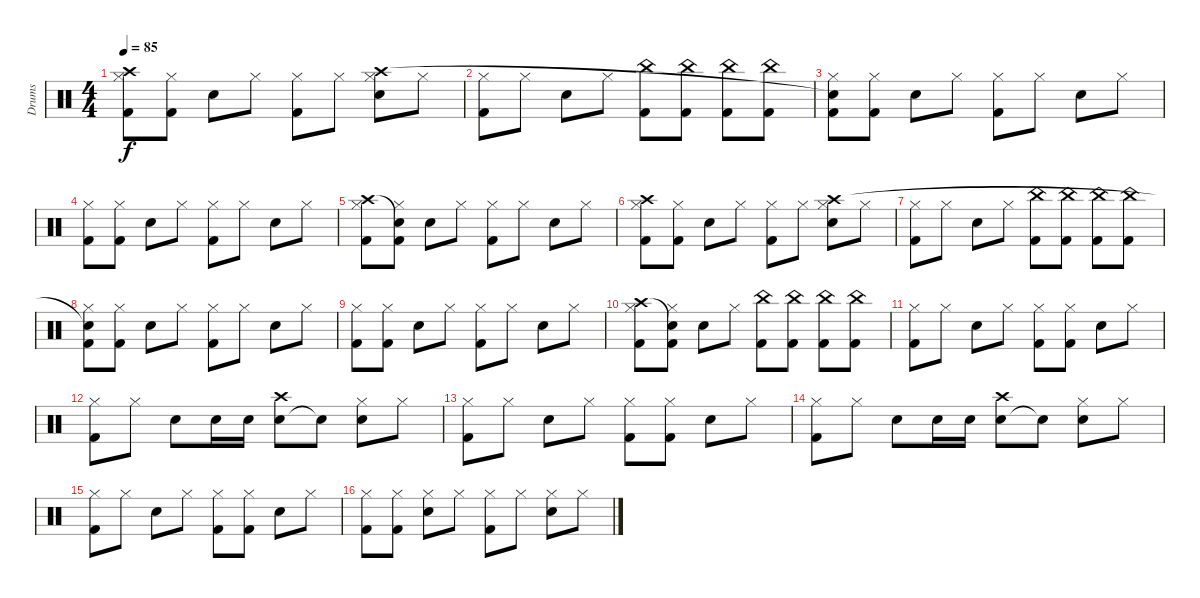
\track ("Drums" "Drums") {instrument percussion}
\staff {score}
\articulation defaults
\ts (4 4)
\tempo 85
\clef neutral
\ks c
("Kick (hit) 2" "Hi-Hat (closed)" "Crash high (hit)").8{dy f} ("Kick (hit) 2" "Hi-Hat (closed)").8 "Snare (hit) 2".8 "Hi-Hat (closed)".8 ("Kick (hit) 2" "Hi-Hat (closed)").8 "Hi-Hat (closed)".8 ("Snare (hit) 2" "Hi-Hat (closed)" "Crash high (hit)").8 "Hi-Hat (closed)".8 |
("Kick (hit) 2" "Hi-Hat (closed)").8 "Hi-Hat (closed)".8 "Snare (hit) 2".8 "Hi-Hat (closed)".8 ("Kick (hit) 2" "China (hit)").8 ("Kick (hit) 2" "China (hit)").8 ("Kick (hit) 2" "China (hit)").8 ("Kick (hit) 2" "China (hit)").8 |
("Kick (hit) 2" "Hi-Hat (closed)" "Snare (hit)"{t}).8 ("Kick (hit) 2" "Hi-Hat (closed)").8 "Snare (hit) 2".8 "Hi-Hat (closed)".8 ("Kick (hit) 2" "Hi-Hat (closed)").8 "Hi-Hat (closed)".8 "Snare (hit) 2".8 "Hi-Hat (closed)".8 |
("Kick (hit) 2" "Hi-Hat (closed)").8 ("Kick (hit) 2" "Hi-Hat (closed)").8 "Snare (hit) 2".8 "Hi-Hat (closed)".8 ("Kick (hit) 2" "Hi-Hat (closed)").8 "Hi-Hat (closed)".8 "Snare (hit) 2".8 "Hi-Hat (closed)".8 |
("Kick (hit) 2" "Hi-Hat (closed)" "Crash high (hit)").8 ("Kick (hit) 2" "Hi-Hat (closed)" "Snare (hit)"{t}).8 "Snare (hit) 2".8 "Hi-Hat (closed)".8 ("Kick (hit) 2" "Hi-Hat (closed)").8 "Hi-Hat (closed)".8 "Snare (hit) 2".8 "Hi-Hat (closed)".8 |
("Kick (hit) 2" "Hi-Hat (closed)" "Crash high (hit)").8 ("Kick (hit) 2" "Hi-Hat (closed)").8 "Snare (hit) 2".8 "Hi-Hat (closed)".8 ("Kick (hit) 2" "Hi-Hat (closed)").8 "Hi-Hat (closed)".8 ("Snare (hit) 2" "Hi-Hat (closed)" "Crash high (hit)").8 "Hi-Hat (closed)".8 |
("Kick (hit) 2" "Hi-Hat (closed)").8 "Hi-Hat (closed)".8 "Snare (hit) 2".8 "Hi-Hat (closed)".8 ("Kick (hit) 2" "China (hit)").8 ("Kick (hit) 2" "China (hit)").8 ("Kick (hit) 2" "China (hit)").8 ("Kick (hit) 2" "China (hit)").8 |
("Kick (hit) 2" "Hi-Hat (closed)" "Snare (hit)"{t}).8 ("Kick (hit) 2" "Hi-Hat (closed)").8 "Snare (hit) 2".8 "Hi-Hat (closed)".8 ("Kick (hit) 2" "Hi-Hat (closed)").8 "Hi-Hat (closed)".8 "Snare (hit) 2".8 "Hi-Hat (closed)".8 |
("Kick (hit) 2" "Hi-Hat (closed)").8 ("Kick (hit) 2" "Hi-Hat (closed)").8 "Snare (hit) 2".8 "Hi-Hat (closed)".8 ("Kick (hit) 2" "Hi-Hat (closed)").8 "Hi-Hat (closed)".8 "Snare (hit) 2".8 "Hi-Hat (closed)".8 |
("Kick (hit) 2" "Hi-Hat (closed)" "Crash high (hit)").8 ("Kick (hit) 2" "Hi-Hat (closed)" "Snare (hit)"{t}).8 "Snare (hit) 2".8 "Hi-Hat (closed)".8 ("Kick (hit) 2" "China (hit)").8 ("Kick (hit) 2" "China (hit)").8 ("Kick (hit) 2" "China (hit)").8 ("Kick (hit) 2" "China (hit)").8 |
("Kick (hit) 2" "Hi-Hat (closed)").8 "Hi-Hat (closed)".8 "Snare (hit) 2".8 "Hi-Hat (closed)".8 ("Kick (hit) 2" "Hi-Hat (closed)").8 ("Kick (hit) 2" "Hi-Hat (closed)").8 "Snare (hit) 2".8 "Hi-Hat (closed)".8 |
("Kick (hit) 2" "Hi-Hat (closed)").8 "Hi-Hat (closed)".8 "Snare (hit) 2".8 "Snare (hit) 2".16 "Snare (hit) 2".16 ("Snare (hit) 2" "Crash high (hit)").8 "Snare (hit)"{t}.8 ("Snare (hit) 2" "Hi-Hat (closed)").8 "Hi-Hat (closed)".8 |
("Kick (hit) 2" "Hi-Hat (closed)").8 "Hi-Hat (closed)".8 "Snare (hit) 2".8 "Hi-Hat (closed)".8 ("Kick (hit) 2" "Hi-Hat (closed)").8 ("Kick (hit) 2" "Hi-Hat (closed)").8 "Snare (hit) 2".8 "Hi-Hat (closed)".8 |
("Kick (hit) 2" "Hi-Hat (closed)").8 "Hi-Hat (closed)".8 "Snare (hit) 2".8 "Snare (hit) 2".16 "Snare (hit) 2".16 ("Snare (hit) 2" "Crash high (hit)").8 "Snare (hit)"{t}.8 ("Snare (hit) 2" "Hi-Hat (closed)").8 "Hi-Hat (closed)".8 |
("Kick (hit) 2" "Hi-Hat (closed)").8 "Hi-Hat (closed)".8 "Snare (hit) 2".8 "Hi-Hat (closed)".8 ("Kick (hit) 2" "Hi-Hat (closed)").8 ("Kick (hit) 2" "Hi-Hat (closed)").8 "Snare (hit) 2".8 "Hi-Hat (closed)".8 |
("Kick (hit) 2" "Hi-Hat (closed)").8 ("Kick (hit) 2" "Hi-Hat (closed)").8 ("Snare (hit) 2" "Hi-Hat (closed)").8 "Hi-Hat (closed)".8 ("Kick (hit) 2" "Hi-Hat (closed)").8 "Hi-Hat (closed)".8 ("Snare (hit) 2" "Hi-Hat (closed)").8 "Hi-Hat (closed)".8
